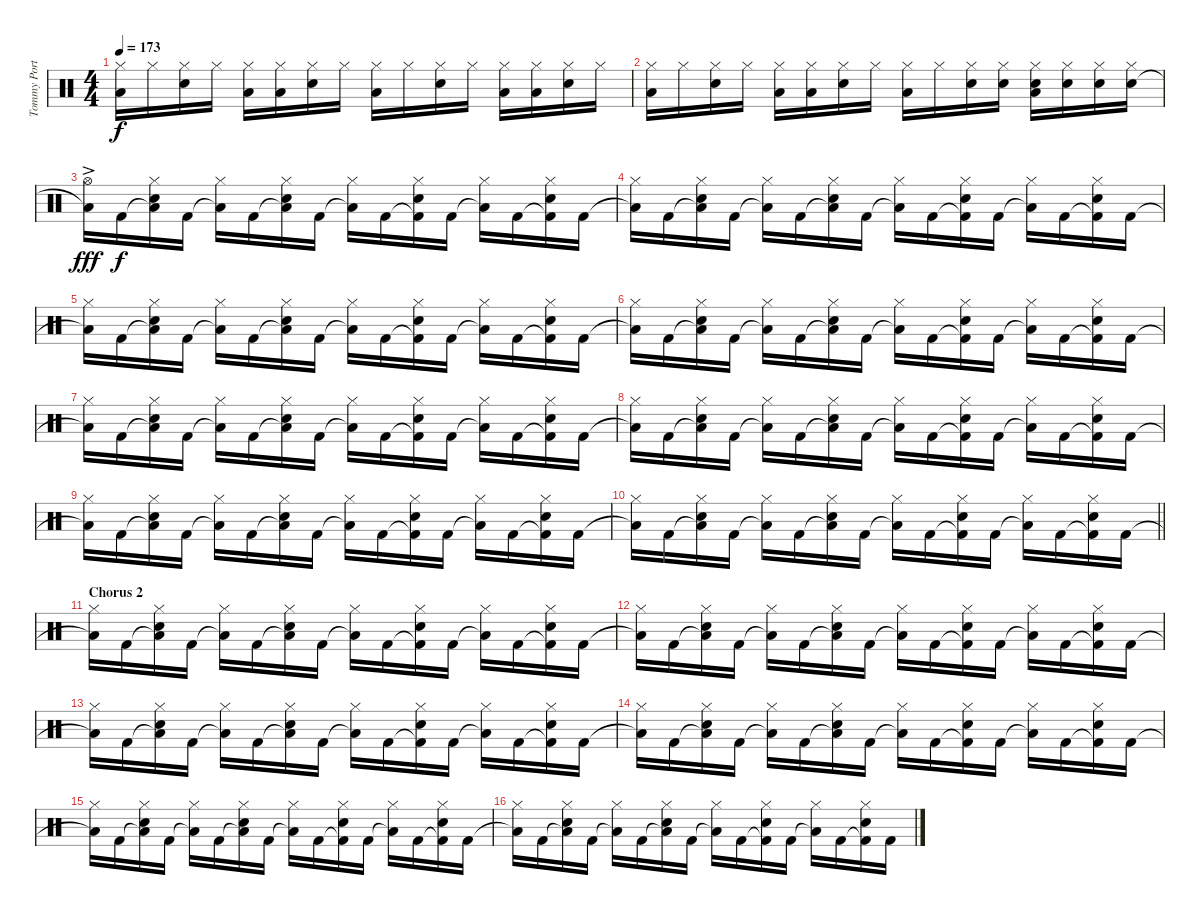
\track ("Tommy Portimo - Drums" "Tommy Port") {instrument percussion}
\staff {score}
\articulation defaults
\ts (4 4)
\tempo 173
\clef neutral
\ks aminor
("Low Floor Tom (hit)" "Hi-Hat (closed)").16{dy f} "Hi-Hat (closed)".16 ("Electric Snare (hit)" "Hi-Hat (closed)").16 "Hi-Hat (closed)".16 ("Low Floor Tom (hit)" "Hi-Hat (closed)").16 ("Low Floor Tom (hit)" "Hi-Hat (closed)").16 ("Electric Snare (hit)" "Hi-Hat (closed)").16 "Hi-Hat (closed)".16 ("Low Floor Tom (hit)" "Hi-Hat (closed)").16 "Hi-Hat (closed)".16 ("Electric Snare (hit)" "Hi-Hat (closed)").16 "Hi-Hat (closed)".16 ("Low Floor Tom (hit)" "Hi-Hat (closed)").16 ("Low Floor Tom (hit)" "Hi-Hat (closed)").16 ("Electric Snare (hit)" "Hi-Hat (closed)").16 "Hi-Hat (closed)".16 |
("Low Floor Tom (hit)" "Hi-Hat (closed)").16 "Hi-Hat (closed)".16 ("Electric Snare (hit)" "Hi-Hat (closed)").16 "Hi-Hat (closed)".16 ("Low Floor Tom (hit)" "Hi-Hat (closed)").16 ("Low Floor Tom (hit)" "Hi-Hat (closed)").16 ("Electric Snare (hit)" "Hi-Hat (closed)").16 "Hi-Hat (closed)".16 ("Low Floor Tom (hit)" "Hi-Hat (closed)").16 "Hi-Hat (closed)".16 ("Electric Snare (hit)" "Hi-Hat (closed)").16 ("Electric Snare (hit)" "Hi-Hat (closed)").16 ("Low Floor Tom (hit)" "Electric Snare (hit)" "Hi-Hat (closed)").16 ("Electric Snare (hit)" "Hi-Hat (closed)").16 ("Electric Snare (hit)" "Hi-Hat (closed)").16 ("Electric Snare (hit)" "Hi-Hat (closed)").16 |
("Low Floor Tom (hit)"{t} "Hi-Hat (open)"{ac}).16{dy fff} "Kick (hit) 2".16{dy f} ("Low Floor Tom (hit)"{t} "Electric Snare (hit)" "Hi-Hat (closed)").16 "Kick (hit) 2".16 ("Low Floor Tom (hit)"{t} "Hi-Hat (closed)").16 "Kick (hit) 2".16 ("Low Floor Tom (hit)"{t} "Electric Snare (hit)" "Hi-Hat (closed)").16 "Kick (hit) 2".16 ("Low Floor Tom (hit)"{t} "Hi-Hat (closed)").16 "Kick (hit) 2".16 ("Kick (hit) 2"{t} "Electric Snare (hit)" "Hi-Hat (closed)").16 "Kick (hit) 2".16 ("Low Floor Tom (hit)"{t} "Hi-Hat (closed)").16 "Kick (hit) 2".16 ("Kick (hit) 2"{t} "Electric Snare (hit)" "Hi-Hat (closed)").16 "Kick (hit) 2".16 |
("Low Floor Tom (hit)"{t} "Hi-Hat (closed)").16 "Kick (hit) 2".16 ("Low Floor Tom (hit)"{t} "Electric Snare (hit)" "Hi-Hat (closed)").16 "Kick (hit) 2".16 ("Low Floor Tom (hit)"{t} "Hi-Hat (closed)").16 "Kick (hit) 2".16 ("Low Floor Tom (hit)"{t} "Electric Snare (hit)" "Hi-Hat (closed)").16 "Kick (hit) 2".16 ("Low Floor Tom (hit)"{t} "Hi-Hat (closed)").16 "Kick (hit) 2".16 ("Kick (hit) 2"{t} "Electric Snare (hit)" "Hi-Hat (closed)").16 "Kick (hit) 2".16 ("Low Floor Tom (hit)"{t} "Hi-Hat (closed)").16 "Kick (hit) 2".16 ("Kick (hit) 2"{t} "Electric Snare (hit)" "Hi-Hat (closed)").16 "Kick (hit) 2".16 |
("Low Floor Tom (hit)"{t} "Hi-Hat (closed)").16 "Kick (hit) 2".16 ("Low Floor Tom (hit)"{t} "Electric Snare (hit)" "Hi-Hat (closed)").16 "Kick (hit) 2".16 ("Low Floor Tom (hit)"{t} "Hi-Hat (closed)").16 "Kick (hit) 2".16 ("Low Floor Tom (hit)"{t} "Electric Snare (hit)" "Hi-Hat (closed)").16 "Kick (hit) 2".16 ("Low Floor Tom (hit)"{t} "Hi-Hat (closed)").16 "Kick (hit) 2".16 ("Kick (hit) 2"{t} "Electric Snare (hit)" "Hi-Hat (closed)").16 "Kick (hit) 2".16 ("Low Floor Tom (hit)"{t} "Hi-Hat (closed)").16 "Kick (hit) 2".16 ("Kick (hit) 2"{t} "Electric Snare (hit)" "Hi-Hat (closed)").16 "Kick (hit) 2".16 |
("Low Floor Tom (hit)"{t} "Hi-Hat (closed)").16 "Kick (hit) 2".16 ("Low Floor Tom (hit)"{t} "Electric Snare (hit)" "Hi-Hat (closed)").16 "Kick (hit) 2".16 ("Low Floor Tom (hit)"{t} "Hi-Hat (closed)").16 "Kick (hit) 2".16 ("Low Floor Tom (hit)"{t} "Electric Snare (hit)" "Hi-Hat (closed)").16 "Kick (hit) 2".16 ("Low Floor Tom (hit)"{t} "Hi-Hat (closed)").16 "Kick (hit) 2".16 ("Kick (hit) 2"{t} "Electric Snare (hit)" "Hi-Hat (closed)").16 "Kick (hit) 2".16 ("Low Floor Tom (hit)"{t} "Hi-Hat (closed)").16 "Kick (hit) 2".16 ("Kick (hit) 2"{t} "Electric Snare (hit)" "Hi-Hat (closed)").16 "Kick (hit) 2".16 |
("Low Floor Tom (hit)"{t} "Hi-Hat (closed)").16 "Kick (hit) 2".16 ("Low Floor Tom (hit)"{t} "Electric Snare (hit)" "Hi-Hat (closed)").16 "Kick (hit) 2".16 ("Low Floor Tom (hit)"{t} "Hi-Hat (closed)").16 "Kick (hit) 2".16 ("Low Floor Tom (hit)"{t} "Electric Snare (hit)" "Hi-Hat (closed)").16 "Kick (hit) 2".16 ("Low Floor Tom (hit)"{t} "Hi-Hat (closed)").16 "Kick (hit) 2".16 ("Kick (hit) 2"{t} "Electric Snare (hit)" "Hi-Hat (closed)").16 "Kick (hit) 2".16 ("Low Floor Tom (hit)"{t} "Hi-Hat (closed)").16 "Kick (hit) 2".16 ("Kick (hit) 2"{t} "Electric Snare (hit)" "Hi-Hat (closed)").16 "Kick (hit) 2".16 |
("Low Floor Tom (hit)"{t} "Hi-Hat (closed)").16 "Kick (hit) 2".16 ("Low Floor Tom (hit)"{t} "Electric Snare (hit)" "Hi-Hat (closed)").16 "Kick (hit) 2".16 ("Low Floor Tom (hit)"{t} "Hi-Hat (closed)").16 "Kick (hit) 2".16 ("Low Floor Tom (hit)"{t} "Electric Snare (hit)" "Hi-Hat (closed)").16 "Kick (hit) 2".16 ("Low Floor Tom (hit)"{t} "Hi-Hat (closed)").16 "Kick (hit) 2".16 ("Kick (hit) 2"{t} "Electric Snare (hit)" "Hi-Hat (closed)").16 "Kick (hit) 2".16 ("Low Floor Tom (hit)"{t} "Hi-Hat (closed)").16 "Kick (hit) 2".16 ("Kick (hit) 2"{t} "Electric Snare (hit)" "Hi-Hat (closed)").16 "Kick (hit) 2".16 |
("Low Floor Tom (hit)"{t} "Hi-Hat (closed)").16 "Kick (hit) 2".16 ("Low Floor Tom (hit)"{t} "Electric Snare (hit)" "Hi-Hat (closed)").16 "Kick (hit) 2".16 ("Low Floor Tom (hit)"{t} "Hi-Hat (closed)").16 "Kick (hit) 2".16 ("Low Floor Tom (hit)"{t} "Electric Snare (hit)" "Hi-Hat (closed)").16 "Kick (hit) 2".16 ("Low Floor Tom (hit)"{t} "Hi-Hat (closed)").16 "Kick (hit) 2".16 ("Kick (hit) 2"{t} "Electric Snare (hit)" "Hi-Hat (closed)").16 "Kick (hit) 2".16 ("Low Floor Tom (hit)"{t} "Hi-Hat (closed)").16 "Kick (hit) 2".16 ("Kick (hit) 2"{t} "Electric Snare (hit)" "Hi-Hat (closed)").16 "Kick (hit) 2".16 |
\barLineRight lightlight
("Low Floor Tom (hit)"{t} "Hi-Hat (closed)").16 "Kick (hit) 2".16 ("Low Floor Tom (hit)"{t} "Electric Snare (hit)" "Hi-Hat (closed)").16 "Kick (hit) 2".16 ("Low Floor Tom (hit)"{t} "Hi-Hat (closed)").16 "Kick (hit) 2".16 ("Low Floor Tom (hit)"{t} "Electric Snare (hit)" "Hi-Hat (closed)").16 "Kick (hit) 2".16 ("Low Floor Tom (hit)"{t} "Hi-Hat (closed)").16 "Kick (hit) 2".16 ("Kick (hit) 2"{t} "Electric Snare (hit)" "Hi-Hat (closed)").16 "Kick (hit) 2".16 ("Low Floor Tom (hit)"{t} "Hi-Hat (closed)").16 "Kick (hit) 2".16 ("Kick (hit) 2"{t} "Electric Snare (hit)" "Hi-Hat (closed)").16 "Kick (hit) 2".16 |
\section ("" "Chorus 2")
\ks c
("Low Floor Tom (hit)"{t} "Hi-Hat (closed)").16 "Kick (hit) 2".16 ("Low Floor Tom (hit)"{t} "Electric Snare (hit)" "Hi-Hat (closed)").16 "Kick (hit) 2".16 ("Low Floor Tom (hit)"{t} "Hi-Hat (closed)").16 "Kick (hit) 2".16 ("Low Floor Tom (hit)"{t} "Electric Snare (hit)" "Hi-Hat (closed)").16 "Kick (hit) 2".16 ("Low Floor Tom (hit)"{t} "Hi-Hat (closed)").16 "Kick (hit) 2".16 ("Kick (hit) 2"{t} "Electric Snare (hit)" "Hi-Hat (closed)").16 "Kick (hit) 2".16 ("Low Floor Tom (hit)"{t} "Hi-Hat (closed)").16 "Kick (hit) 2".16 ("Kick (hit) 2"{t} "Electric Snare (hit)" "Hi-Hat (closed)").16 "Kick (hit) 2".16 |
("Low Floor Tom (hit)"{t} "Hi-Hat (closed)").16 "Kick (hit) 2".16 ("Low Floor Tom (hit)"{t} "Electric Snare (hit)" "Hi-Hat (closed)").16 "Kick (hit) 2".16 ("Low Floor Tom (hit)"{t} "Hi-Hat (closed)").16 "Kick (hit) 2".16 ("Low Floor Tom (hit)"{t} "Electric Snare (hit)" "Hi-Hat (closed)").16 "Kick (hit) 2".16 ("Low Floor Tom (hit)"{t} "Hi-Hat (closed)").16 "Kick (hit) 2".16 ("Kick (hit) 2"{t} "Electric Snare (hit)" "Hi-Hat (closed)").16 "Kick (hit) 2".16 ("Low Floor Tom (hit)"{t} "Hi-Hat (closed)").16 "Kick (hit) 2".16 ("Kick (hit) 2"{t} "Electric Snare (hit)" "Hi-Hat (closed)").16 "Kick (hit) 2".16 |
("Low Floor Tom (hit)"{t} "Hi-Hat (closed)").16 "Kick (hit) 2".16 ("Low Floor Tom (hit)"{t} "Electric Snare (hit)" "Hi-Hat (closed)").16 "Kick (hit) 2".16 ("Low Floor Tom (hit)"{t} "Hi-Hat (closed)").16 "Kick (hit) 2".16 ("Low Floor Tom (hit)"{t} "Electric Snare (hit)" "Hi-Hat (closed)").16 "Kick (hit) 2".16 ("Low Floor Tom (hit)"{t} "Hi-Hat (closed)").16 "Kick (hit) 2".16 ("Kick (hit) 2"{t} "Electric Snare (hit)" "Hi-Hat (closed)").16 "Kick (hit) 2".16 ("Low Floor Tom (hit)"{t} "Hi-Hat (closed)").16 "Kick (hit) 2".16 ("Kick (hit) 2"{t} "Electric Snare (hit)" "Hi-Hat (closed)").16 "Kick (hit) 2".16 |
("Low Floor Tom (hit)"{t} "Hi-Hat (closed)").16 "Kick (hit) 2".16 ("Low Floor Tom (hit)"{t} "Electric Snare (hit)" "Hi-Hat (closed)").16 "Kick (hit) 2".16 ("Low Floor Tom (hit)"{t} "Hi-Hat (closed)").16 "Kick (hit) 2".16 ("Low Floor Tom (hit)"{t} "Electric Snare (hit)" "Hi-Hat (closed)").16 "Kick (hit) 2".16 ("Low Floor Tom (hit)"{t} "Hi-Hat (closed)").16 "Kick (hit) 2".16 ("Kick (hit) 2"{t} "Electric Snare (hit)" "Hi-Hat (closed)").16 "Kick (hit) 2".16 ("Low Floor Tom (hit)"{t} "Hi-Hat (closed)").16 "Kick (hit) 2".16 ("Kick (hit) 2"{t} "Electric Snare (hit)" "Hi-Hat (closed)").16 "Kick (hit) 2".16 |
("Low Floor Tom (hit)"{t} "Hi-Hat (closed)").16 "Kick (hit) 2".16 ("Low Floor Tom (hit)"{t} "Electric Snare (hit)" "Hi-Hat (closed)").16 "Kick (hit) 2".16 ("Low Floor Tom (hit)"{t} "Hi-Hat (closed)").16 "Kick (hit) 2".16 ("Low Floor Tom (hit)"{t} "Electric Snare (hit)" "Hi-Hat (closed)").16 "Kick (hit) 2".16 ("Low Floor Tom (hit)"{t} "Hi-Hat (closed)").16 "Kick (hit) 2".16 ("Kick (hit) 2"{t} "Electric Snare (hit)" "Hi-Hat (closed)").16 "Kick (hit) 2".16 ("Low Floor Tom (hit)"{t} "Hi-Hat (closed)").16 "Kick (hit) 2".16 ("Kick (hit) 2"{t} "Electric Snare (hit)" "Hi-Hat (closed)").16 "Kick (hit) 2".16 |
("Low Floor Tom (hit)"{t} "Hi-Hat (closed)").16 "Kick (hit) 2".16 ("Low Floor Tom (hit)"{t} "Electric Snare (hit)" "Hi-Hat (closed)").16 "Kick (hit) 2".16 ("Low Floor Tom (hit)"{t} "Hi-Hat (closed)").16 "Kick (hit) 2".16 ("Low Floor Tom (hit)"{t} "Electric Snare (hit)" "Hi-Hat (closed)").16 "Kick (hit) 2".16 ("Low Floor Tom (hit)"{t} "Hi-Hat (closed)").16 "Kick (hit) 2".16 ("Kick (hit) 2"{t} "Electric Snare (hit)" "Hi-Hat (closed)").16 "Kick (hit) 2".16 ("Low Floor Tom (hit)"{t} "Hi-Hat (closed)").16 "Kick (hit) 2".16 ("Kick (hit) 2"{t} "Electric Snare (hit)" "Hi-Hat (closed)").16 "Kick (hit) 2".16
